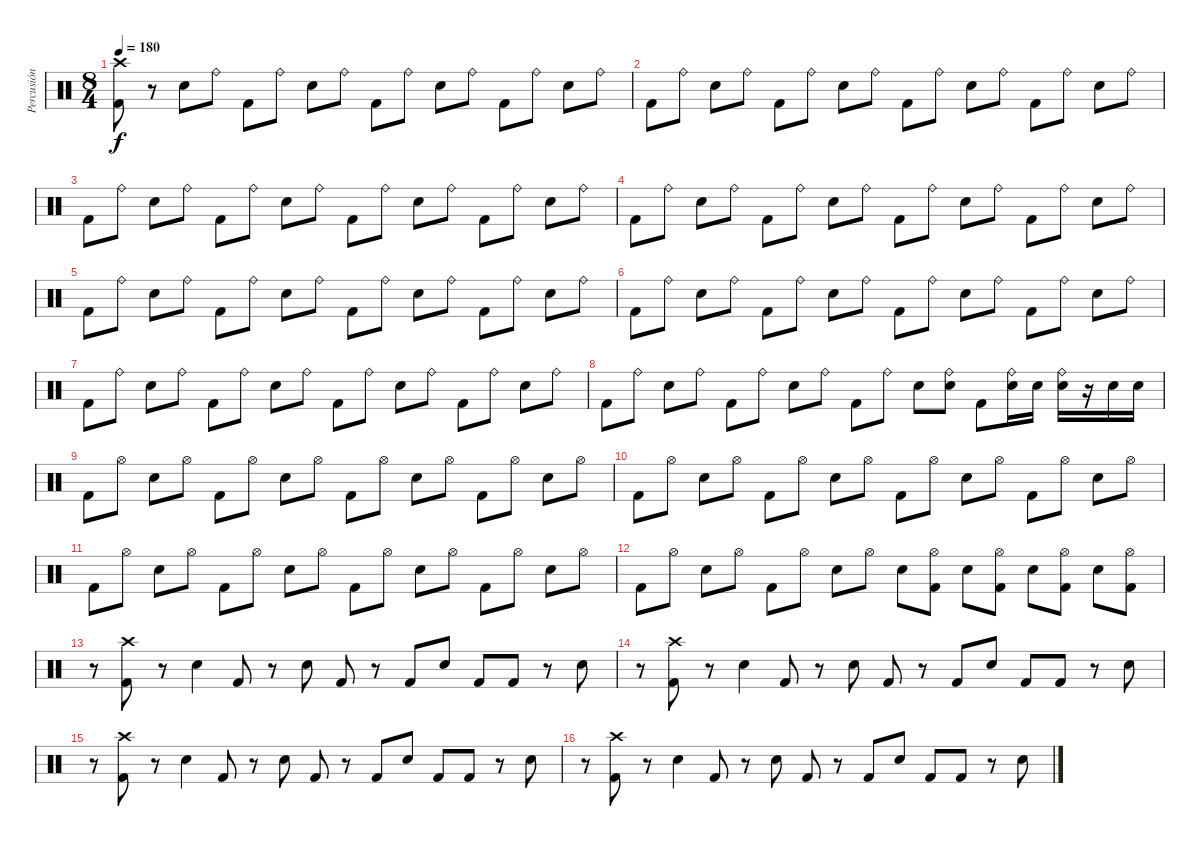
\track ("Percusión" "Percusión") {instrument percussion}
\staff {score}
\articulation defaults
\ts (8 4)
\tempo 180
\clef neutral
\ks c
("Crash high (hit)" "Kick (hit) 2").8{dy f} r.8 "Snare (hit) 2".8 "Ride (bell)".8 "Kick (hit) 2".8 "Ride (bell)".8 "Snare (hit) 2".8 "Ride (bell)".8 "Kick (hit) 2".8 "Ride (bell)".8 "Snare (hit) 2".8 "Ride (bell)".8 "Kick (hit) 2".8 "Ride (bell)".8 "Snare (hit) 2".8 "Ride (bell)".8 |
"Kick (hit) 2".8 "Ride (bell)".8 "Snare (hit) 2".8 "Ride (bell)".8 "Kick (hit) 2".8 "Ride (bell)".8 "Snare (hit) 2".8 "Ride (bell)".8 "Kick (hit) 2".8 "Ride (bell)".8 "Snare (hit) 2".8 "Ride (bell)".8 "Kick (hit) 2".8 "Ride (bell)".8 "Snare (hit) 2".8 "Ride (bell)".8 |
"Kick (hit) 2".8 "Ride (bell)".8 "Snare (hit) 2".8 "Ride (bell)".8 "Kick (hit) 2".8 "Ride (bell)".8 "Snare (hit) 2".8 "Ride (bell)".8 "Kick (hit) 2".8 "Ride (bell)".8 "Snare (hit) 2".8 "Ride (bell)".8 "Kick (hit) 2".8 "Ride (bell)".8 "Snare (hit) 2".8 "Ride (bell)".8 |
"Kick (hit) 2".8 "Ride (bell)".8 "Snare (hit) 2".8 "Ride (bell)".8 "Kick (hit) 2".8 "Ride (bell)".8 "Snare (hit) 2".8 "Ride (bell)".8 "Kick (hit) 2".8 "Ride (bell)".8 "Snare (hit) 2".8 "Ride (bell)".8 "Kick (hit) 2".8 "Ride (bell)".8 "Snare (hit) 2".8 "Ride (bell)".8 |
"Kick (hit) 2".8 "Ride (bell)".8 "Snare (hit) 2".8 "Ride (bell)".8 "Kick (hit) 2".8 "Ride (bell)".8 "Snare (hit) 2".8 "Ride (bell)".8 "Kick (hit) 2".8 "Ride (bell)".8 "Snare (hit) 2".8 "Ride (bell)".8 "Kick (hit) 2".8 "Ride (bell)".8 "Snare (hit) 2".8 "Ride (bell)".8 |
"Kick (hit) 2".8 "Ride (bell)".8 "Snare (hit) 2".8 "Ride (bell)".8 "Kick (hit) 2".8 "Ride (bell)".8 "Snare (hit) 2".8 "Ride (bell)".8 "Kick (hit) 2".8 "Ride (bell)".8 "Snare (hit) 2".8 "Ride (bell)".8 "Kick (hit) 2".8 "Ride (bell)".8 "Snare (hit) 2".8 "Ride (bell)".8 |
"Kick (hit) 2".8 "Ride (bell)".8 "Snare (hit) 2".8 "Ride (bell)".8 "Kick (hit) 2".8 "Ride (bell)".8 "Snare (hit) 2".8 "Ride (bell)".8 "Kick (hit) 2".8 "Ride (bell)".8 "Snare (hit) 2".8 "Ride (bell)".8 "Kick (hit) 2".8 "Ride (bell)".8 "Snare (hit) 2".8 "Ride (bell)".8 |
"Kick (hit) 2".8 "Ride (bell)".8 "Snare (hit) 2".8 "Ride (bell)".8 "Kick (hit) 2".8 "Ride (bell)".8 "Snare (hit) 2".8 "Ride (bell)".8 "Kick (hit) 2".8 "Ride (bell)".8 "Snare (hit) 2".8 ("Ride (bell)" "Snare (hit) 2").8 "Kick (hit) 2".8 ("Ride (bell)" "Snare (hit) 2").16 "Snare (hit) 2".16 ("Ride (bell)" "Snare (hit) 2").16 r.16 "Snare (hit) 2".16 "Snare (hit) 2".16 |
"Kick (hit) 2".8 "Hi-Hat (open)".8 "Snare (hit) 2".8 "Hi-Hat (open)".8 "Kick (hit) 2".8 "Hi-Hat (open)".8 "Snare (hit) 2".8 "Hi-Hat (open)".8 "Kick (hit) 2".8 "Hi-Hat (open)".8 "Snare (hit) 2".8 "Hi-Hat (open)".8 "Kick (hit) 2".8 "Hi-Hat (open)".8 "Snare (hit) 2".8 "Hi-Hat (open)".8 |
"Kick (hit) 2".8 "Hi-Hat (open)".8 "Snare (hit) 2".8 "Hi-Hat (open)".8 "Kick (hit) 2".8 "Hi-Hat (open)".8 "Snare (hit) 2".8 "Hi-Hat (open)".8 "Kick (hit) 2".8 "Hi-Hat (open)".8 "Snare (hit) 2".8 "Hi-Hat (open)".8 "Kick (hit) 2".8 "Hi-Hat (open)".8 "Snare (hit) 2".8 "Hi-Hat (open)".8 |
"Kick (hit) 2".8 "Hi-Hat (open)".8 "Snare (hit) 2".8 "Hi-Hat (open)".8 "Kick (hit) 2".8 "Hi-Hat (open)".8 "Snare (hit) 2".8 "Hi-Hat (open)".8 "Kick (hit) 2".8 "Hi-Hat (open)".8 "Snare (hit) 2".8 "Hi-Hat (open)".8 "Kick (hit) 2".8 "Hi-Hat (open)".8 "Snare (hit) 2".8 "Hi-Hat (open)".8 |
"Kick (hit) 2".8 "Hi-Hat (open)".8 "Snare (hit) 2".8 "Hi-Hat (open)".8 "Kick (hit) 2".8 "Hi-Hat (open)".8 "Snare (hit) 2".8 "Hi-Hat (open)".8 "Snare (hit) 2".8 ("Hi-Hat (open)" "Kick (hit) 2").8 "Snare (hit) 2".8 ("Hi-Hat (open)" "Kick (hit) 2").8 "Snare (hit) 2".8 ("Hi-Hat (open)" "Kick (hit) 2").8 "Snare (hit) 2".8 ("Hi-Hat (open)" "Kick (hit) 2").8 |
r.8 ("Kick (hit) 2" "Crash high (hit)").8 r.8 "Snare (hit) 2".4 "Kick (hit) 2".8 r.8 "Snare (hit) 2".8 "Kick (hit) 2".8 r.8 "Kick (hit) 2".8 "Snare (hit) 2".8 "Kick (hit) 2".8 "Kick (hit) 2".8 r.8 "Snare (hit) 2".8 |
r.8 ("Kick (hit) 2" "Crash high (hit)").8 r.8 "Snare (hit) 2".4 "Kick (hit) 2".8 r.8 "Snare (hit) 2".8 "Kick (hit) 2".8 r.8 "Kick (hit) 2".8 "Snare (hit) 2".8 "Kick (hit) 2".8 "Kick (hit) 2".8 r.8 "Snare (hit) 2".8 |
r.8 ("Kick (hit) 2" "Crash high (hit)").8 r.8 "Snare (hit) 2".4 "Kick (hit) 2".8 r.8 "Snare (hit) 2".8 "Kick (hit) 2".8 r.8 "Kick (hit) 2".8 "Snare (hit) 2".8 "Kick (hit) 2".8 "Kick (hit) 2".8 r.8 "Snare (hit) 2".8 |
r.8 ("Kick (hit) 2" "Crash high (hit)").8 r.8 "Snare (hit) 2".4 "Kick (hit) 2".8 r.8 "Snare (hit) 2".8 "Kick (hit) 2".8 r.8 "Kick (hit) 2".8 "Snare (hit) 2".8 "Kick (hit) 2".8 "Kick (hit) 2".8 r.8 "Snare (hit) 2".8
